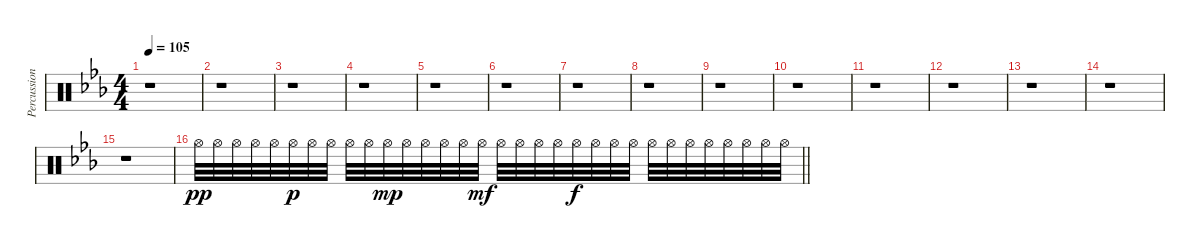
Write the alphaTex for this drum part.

\track ("Percussion" "Percussion") {instrument percussion}
\staff {score}
\articulation defaults
\ts (4 4)
\tempo 105
\clef neutral
\ks eb
r.1{dy f} |
r.1 |
r.1 |
r.1 |
r.1 |
r.1 |
r.1 |
r.1 |
r.1 |
r.1 |
r.1 |
r.1 |
r.1 |
r.1 |
r.1 |
\barLineRight lightlight "Hi-Hat (open)".32{dy pp} "Hi-Hat (open)".32 "Hi-Hat (open)".32 "Hi-Hat (open)".32 "Hi-Hat (open)".32 "Hi-Hat (open)".32{dy p} "Hi-Hat (open)".32 "Hi-Hat (open)".32 "Hi-Hat (open)".32 "Hi-Hat (open)".32 "Hi-Hat (open)".32{dy mp} "Hi-Hat (open)".32 "Hi-Hat (open)".32 "Hi-Hat (open)".32 "Hi-Hat (open)".32 "Hi-Hat (open)".32{dy mf} "Hi-Hat (open)".32 "Hi-Hat (open)".32 "Hi-Hat (open)".32 "Hi-Hat (open)".32 "Hi-Hat (open)".32{dy f} "Hi-Hat (open)".32 "Hi-Hat (open)".32 "Hi-Hat (open)".32 "Hi-Hat (open)".32 "Hi-Hat (open)".32 "Hi-Hat (open)".32 "Hi-Hat (open)".32 "Hi-Hat (open)".32 "Hi-Hat (open)".32 "Hi-Hat (open)".32 "Hi-Hat (open)".32
